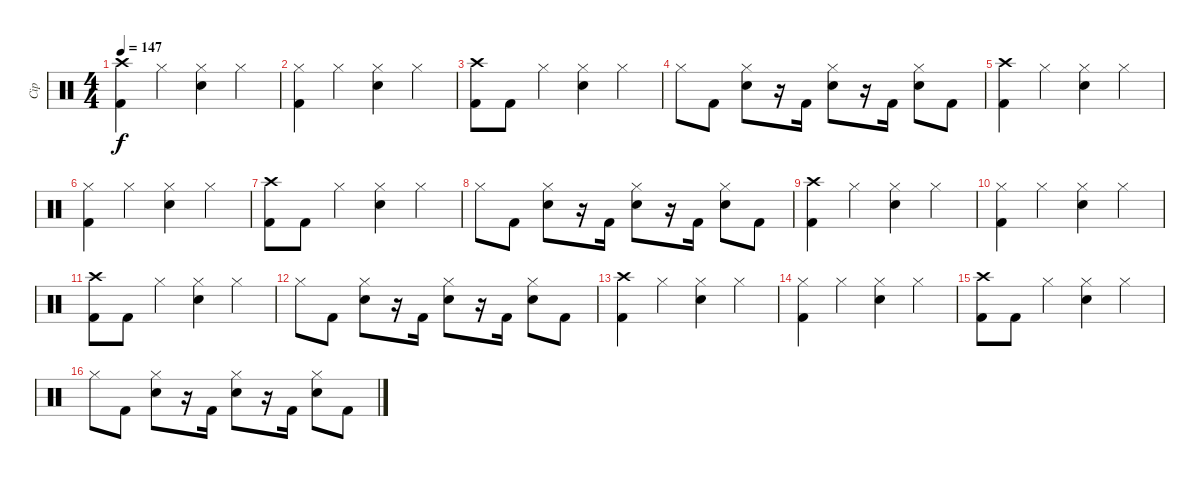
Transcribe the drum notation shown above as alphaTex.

\track ("Cip" "Cip") {instrument percussion}
\staff {score}
\articulation defaults
\ts (4 4)
\tempo 147
\clef neutral
\ks c
("Crash high (hit)" "Kick (hit) 2").4{dy f} "Hi-Hat (closed)".4 ("Hi-Hat (closed)" "Electric Snare (hit)").4 "Hi-Hat (closed)".4 |
("Hi-Hat (closed)" "Kick (hit) 2").4 "Hi-Hat (closed)".4 ("Hi-Hat (closed)" "Electric Snare (hit)").4 "Hi-Hat (closed)".4 |
("Crash high (hit)" "Kick (hit) 2").8 "Kick (hit) 2".8 "Hi-Hat (closed)".4 ("Hi-Hat (closed)" "Electric Snare (hit)").4 "Hi-Hat (closed)".4 |
"Hi-Hat (closed)".8 "Kick (hit) 2".8 ("Hi-Hat (closed)" "Electric Snare (hit)").8 r.16 "Kick (hit) 2".16 ("Hi-Hat (closed)" "Electric Snare (hit)").8 r.16 "Kick (hit) 2".16 ("Hi-Hat (closed)" "Electric Snare (hit)").8 "Kick (hit) 2".8 |
("Crash high (hit)" "Kick (hit) 2").4 "Hi-Hat (closed)".4 ("Hi-Hat (closed)" "Electric Snare (hit)").4 "Hi-Hat (closed)".4 |
("Hi-Hat (closed)" "Kick (hit) 2").4 "Hi-Hat (closed)".4 ("Hi-Hat (closed)" "Electric Snare (hit)").4 "Hi-Hat (closed)".4 |
("Crash high (hit)" "Kick (hit) 2").8 "Kick (hit) 2".8 "Hi-Hat (closed)".4 ("Hi-Hat (closed)" "Electric Snare (hit)").4 "Hi-Hat (closed)".4 |
"Hi-Hat (closed)".8 "Kick (hit) 2".8 ("Hi-Hat (closed)" "Electric Snare (hit)").8 r.16 "Kick (hit) 2".16 ("Hi-Hat (closed)" "Electric Snare (hit)").8 r.16 "Kick (hit) 2".16 ("Hi-Hat (closed)" "Electric Snare (hit)").8 "Kick (hit) 2".8 |
("Crash high (hit)" "Kick (hit) 2").4 "Hi-Hat (closed)".4 ("Hi-Hat (closed)" "Electric Snare (hit)").4 "Hi-Hat (closed)".4 |
("Hi-Hat (closed)" "Kick (hit) 2").4 "Hi-Hat (closed)".4 ("Hi-Hat (closed)" "Electric Snare (hit)").4 "Hi-Hat (closed)".4 |
("Crash high (hit)" "Kick (hit) 2").8 "Kick (hit) 2".8 "Hi-Hat (closed)".4 ("Hi-Hat (closed)" "Electric Snare (hit)").4 "Hi-Hat (closed)".4 |
"Hi-Hat (closed)".8 "Kick (hit) 2".8 ("Hi-Hat (closed)" "Electric Snare (hit)").8 r.16 "Kick (hit) 2".16 ("Hi-Hat (closed)" "Electric Snare (hit)").8 r.16 "Kick (hit) 2".16 ("Hi-Hat (closed)" "Electric Snare (hit)").8 "Kick (hit) 2".8 |
("Crash high (hit)" "Kick (hit) 2").4 "Hi-Hat (closed)".4 ("Hi-Hat (closed)" "Electric Snare (hit)").4 "Hi-Hat (closed)".4 |
("Hi-Hat (closed)" "Kick (hit) 2").4 "Hi-Hat (closed)".4 ("Hi-Hat (closed)" "Electric Snare (hit)").4 "Hi-Hat (closed)".4 |
("Crash high (hit)" "Kick (hit) 2").8 "Kick (hit) 2".8 "Hi-Hat (closed)".4 ("Hi-Hat (closed)" "Electric Snare (hit)").4 "Hi-Hat (closed)".4 |
"Hi-Hat (closed)".8 "Kick (hit) 2".8 ("Hi-Hat (closed)" "Electric Snare (hit)").8 r.16 "Kick (hit) 2".16 ("Hi-Hat (closed)" "Electric Snare (hit)").8 r.16 "Kick (hit) 2".16 ("Hi-Hat (closed)" "Electric Snare (hit)").8 "Kick (hit) 2".8
